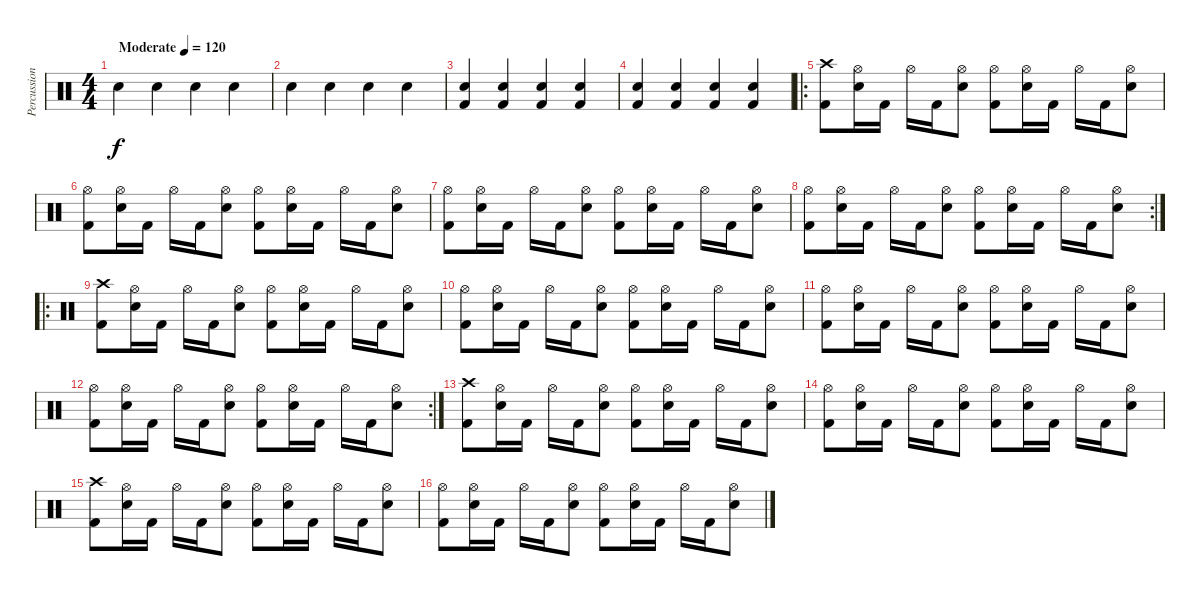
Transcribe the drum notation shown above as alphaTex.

\track ("Percussion" "Percussion") {instrument percussion}
\staff {score}
\articulation defaults
\ts (4 4)
\tempo (120 "Moderate")
\clef neutral
\ks c "Hand Clap (hit)".4{dy f} "Hand Clap (hit)".4 "Hand Clap (hit)".4 "Hand Clap (hit)".4
|
"Hand Clap (hit)".4 "Hand Clap (hit)".4 "Hand Clap (hit)".4 "Hand Clap (hit)".4 |
("Hand Clap (hit)" "Kick (hit) 2").4 ("Hand Clap (hit)" "Kick (hit) 2").4 ("Hand Clap (hit)" "Kick (hit) 2").4 ("Hand Clap (hit)" "Kick (hit) 2").4 |
("Hand Clap (hit)" "Kick (hit) 2").4 ("Hand Clap (hit)" "Kick (hit) 2").4 ("Hand Clap (hit)" "Kick (hit) 2").4 ("Hand Clap (hit)" "Kick (hit) 2").4 |
\ro
("Crash high (hit)" "Kick (hit) 2").8 ("Hi-Hat (open)" "Snare (hit) 2").16 "Kick (hit) 2".16 "Hi-Hat (open)".16 "Kick (hit) 2".16 ("Hi-Hat (open)" "Snare (hit) 2").8 ("Hi-Hat (open)" "Kick (hit) 2").8 ("Hi-Hat (open)" "Snare (hit) 2").16 "Kick (hit) 2".16 "Hi-Hat (open)".16 "Kick (hit) 2".16 ("Hi-Hat (open)" "Snare (hit) 2").8 |
("Hi-Hat (open)" "Kick (hit) 2").8 ("Hi-Hat (open)" "Snare (hit) 2").16 "Kick (hit) 2".16 "Hi-Hat (open)".16 "Kick (hit) 2".16 ("Hi-Hat (open)" "Snare (hit) 2").8 ("Hi-Hat (open)" "Kick (hit) 2").8 ("Hi-Hat (open)" "Snare (hit) 2").16 "Kick (hit) 2".16 "Hi-Hat (open)".16 "Kick (hit) 2".16 ("Hi-Hat (open)" "Snare (hit) 2").8 |
("Hi-Hat (open)" "Kick (hit) 2").8 ("Hi-Hat (open)" "Snare (hit) 2").16 "Kick (hit) 2".16 "Hi-Hat (open)".16 "Kick (hit) 2".16 ("Hi-Hat (open)" "Snare (hit) 2").8 ("Hi-Hat (open)" "Kick (hit) 2").8 ("Hi-Hat (open)" "Snare (hit) 2").16 "Kick (hit) 2".16 "Hi-Hat (open)".16 "Kick (hit) 2".16 ("Hi-Hat (open)" "Snare (hit) 2").8 |
\rc 2
("Hi-Hat (open)" "Kick (hit) 2").8 ("Hi-Hat (open)" "Snare (hit) 2").16 "Kick (hit) 2".16 "Hi-Hat (open)".16 "Kick (hit) 2".16 ("Hi-Hat (open)" "Snare (hit) 2").8 ("Hi-Hat (open)" "Kick (hit) 2").8 ("Hi-Hat (open)" "Snare (hit) 2").16 "Kick (hit) 2".16 "Hi-Hat (open)".16 "Kick (hit) 2".16 ("Hi-Hat (open)" "Snare (hit) 2").8 |
\ro
("Crash high (hit)" "Kick (hit) 2").8 ("Hi-Hat (open)" "Snare (hit) 2").16 "Kick (hit) 2".16 "Hi-Hat (open)".16 "Kick (hit) 2".16 ("Hi-Hat (open)" "Snare (hit) 2").8 ("Hi-Hat (open)" "Kick (hit) 2").8 ("Hi-Hat (open)" "Snare (hit) 2").16 "Kick (hit) 2".16 "Hi-Hat (open)".16 "Kick (hit) 2".16 ("Hi-Hat (open)" "Snare (hit) 2").8 |
("Hi-Hat (open)" "Kick (hit) 2").8 ("Hi-Hat (open)" "Snare (hit) 2").16 "Kick (hit) 2".16 "Hi-Hat (open)".16 "Kick (hit) 2".16 ("Hi-Hat (open)" "Snare (hit) 2").8 ("Hi-Hat (open)" "Kick (hit) 2").8 ("Hi-Hat (open)" "Snare (hit) 2").16 "Kick (hit) 2".16 "Hi-Hat (open)".16 "Kick (hit) 2".16 ("Hi-Hat (open)" "Snare (hit) 2").8 |
("Hi-Hat (open)" "Kick (hit) 2").8 ("Hi-Hat (open)" "Snare (hit) 2").16 "Kick (hit) 2".16 "Hi-Hat (open)".16 "Kick (hit) 2".16 ("Hi-Hat (open)" "Snare (hit) 2").8 ("Hi-Hat (open)" "Kick (hit) 2").8 ("Hi-Hat (open)" "Snare (hit) 2").16 "Kick (hit) 2".16 "Hi-Hat (open)".16 "Kick (hit) 2".16 ("Hi-Hat (open)" "Snare (hit) 2").8 |
\rc 2
("Hi-Hat (open)" "Kick (hit) 2").8 ("Hi-Hat (open)" "Snare (hit) 2").16 "Kick (hit) 2".16 "Hi-Hat (open)".16 "Kick (hit) 2".16 ("Hi-Hat (open)" "Snare (hit) 2").8 ("Hi-Hat (open)" "Kick (hit) 2").8 ("Hi-Hat (open)" "Snare (hit) 2").16 "Kick (hit) 2".16 "Hi-Hat (open)".16 "Kick (hit) 2".16 ("Hi-Hat (open)" "Snare (hit) 2").8 |
("Crash high (hit)" "Kick (hit) 2").8 ("Hi-Hat (open)" "Snare (hit) 2").16 "Kick (hit) 2".16 "Hi-Hat (open)".16 "Kick (hit) 2".16 ("Hi-Hat (open)" "Snare (hit) 2").8 ("Hi-Hat (open)" "Kick (hit) 2").8 ("Hi-Hat (open)" "Snare (hit) 2").16 "Kick (hit) 2".16 "Hi-Hat (open)".16 "Kick (hit) 2".16 ("Hi-Hat (open)" "Snare (hit) 2").8 |
("Hi-Hat (open)" "Kick (hit) 2").8 ("Hi-Hat (open)" "Snare (hit) 2").16 "Kick (hit) 2".16 "Hi-Hat (open)".16 "Kick (hit) 2".16 ("Hi-Hat (open)" "Snare (hit) 2").8 ("Hi-Hat (open)" "Kick (hit) 2").8 ("Hi-Hat (open)" "Snare (hit) 2").16 "Kick (hit) 2".16 "Hi-Hat (open)".16 "Kick (hit) 2".16 ("Hi-Hat (open)" "Snare (hit) 2").8 |
("Crash high (hit)" "Kick (hit) 2").8 ("Hi-Hat (open)" "Snare (hit) 2").16 "Kick (hit) 2".16 "Hi-Hat (open)".16 "Kick (hit) 2".16 ("Hi-Hat (open)" "Snare (hit) 2").8 ("Hi-Hat (open)" "Kick (hit) 2").8 ("Hi-Hat (open)" "Snare (hit) 2").16 "Kick (hit) 2".16 "Hi-Hat (open)".16 "Kick (hit) 2".16 ("Hi-Hat (open)" "Snare (hit) 2").8 |
("Hi-Hat (open)" "Kick (hit) 2").8 ("Hi-Hat (open)" "Snare (hit) 2").16 "Kick (hit) 2".16 "Hi-Hat (open)".16 "Kick (hit) 2".16 ("Hi-Hat (open)" "Snare (hit) 2").8 ("Hi-Hat (open)" "Kick (hit) 2").8 ("Hi-Hat (open)" "Snare (hit) 2").16 "Kick (hit) 2".16 "Hi-Hat (open)".16 "Kick (hit) 2".16 ("Hi-Hat (open)" "Snare (hit) 2").8
